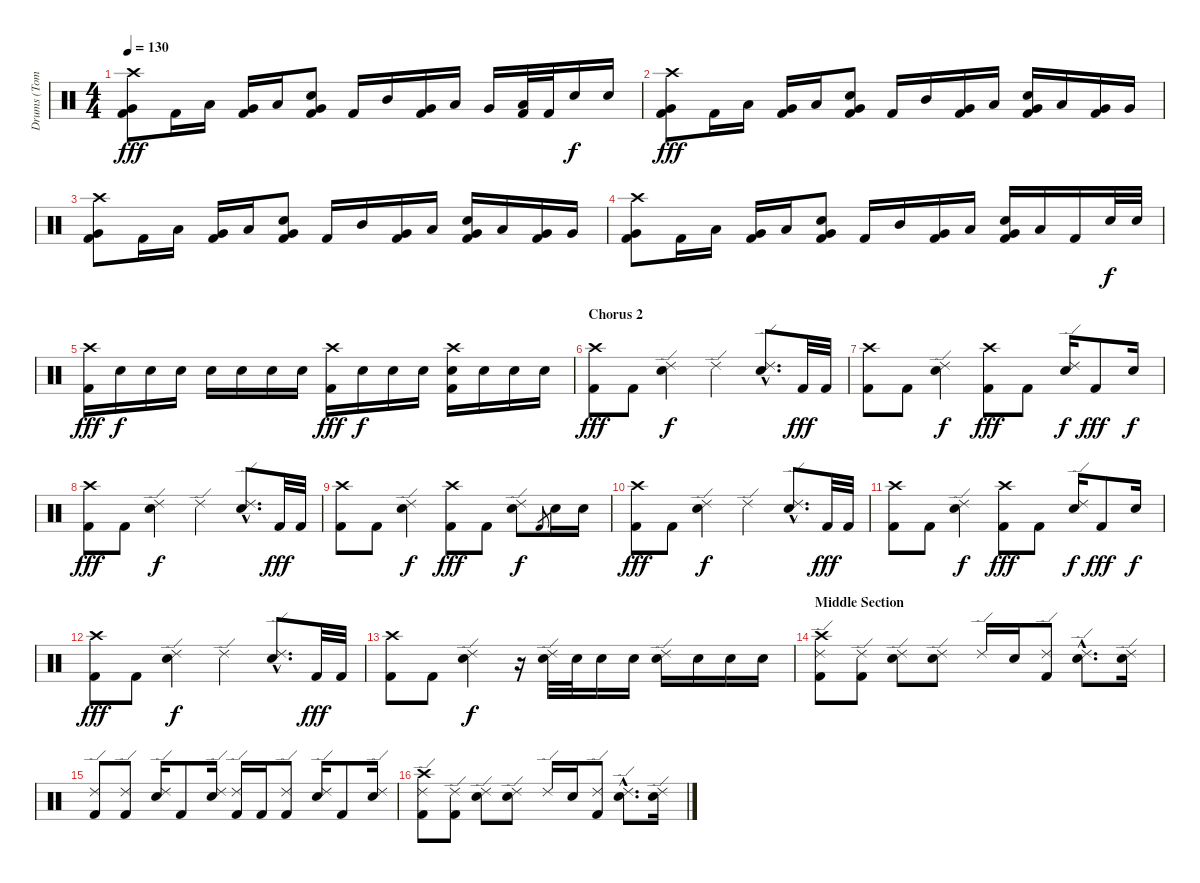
\track ("Drums (Tommy Decker)" "Drums (Tom") {instrument percussion}
\staff {score}
\articulation defaults
\ts (4 4)
\tempo 130
\clef neutral
\ks c
("Crash high (hit)" "Very Low Tom (hit)" "Kick (hit) 2").8{dy fff} "Kick (hit) 2".16 "Low Tom (hit)".16 ("Very Low Tom (hit)" "Kick (hit) 2").16 "Low Tom (hit)".16 ("Electric Snare (hit)" "Very Low Tom (hit)" "Kick (hit) 2").8 "Kick (hit) 2".16 "Mid Tom (hit)".16 ("Very Low Tom (hit)" "Kick (hit) 2").16 "Low Tom (hit)".16 "Very Low Tom (hit)".16 ("Low Tom (hit)" "Kick (hit) 2").32 "Kick (hit) 2".32 "Electric Snare (hit)".16{dy f} "Electric Snare (hit)".16 |
("Crash high (hit)" "Very Low Tom (hit)" "Kick (hit) 2").8{dy fff} "Kick (hit) 2".16 "Low Tom (hit)".16 ("Very Low Tom (hit)" "Kick (hit) 2").16 "Low Tom (hit)".16 ("Electric Snare (hit)" "Very Low Tom (hit)" "Kick (hit) 2").8 "Kick (hit) 2".16 "Mid Tom (hit)".16 ("Very Low Tom (hit)" "Kick (hit) 2").16 "Low Tom (hit)".16 ("Electric Snare (hit)" "Very Low Tom (hit)" "Kick (hit) 2").16 "Low Tom (hit)".16 ("Very Low Tom (hit)" "Kick (hit) 2").16 "Very Low Tom (hit)".16 |
("Crash high (hit)" "Very Low Tom (hit)" "Kick (hit) 2").8 "Kick (hit) 2".16 "Low Tom (hit)".16 ("Very Low Tom (hit)" "Kick (hit) 2").16 "Low Tom (hit)".16 ("Electric Snare (hit)" "Very Low Tom (hit)" "Kick (hit) 2").8 "Kick (hit) 2".16 "Mid Tom (hit)".16 ("Very Low Tom (hit)" "Kick (hit) 2").16 "Low Tom (hit)".16 ("Electric Snare (hit)" "Very Low Tom (hit)" "Kick (hit) 2").16 "Low Tom (hit)".16 ("Very Low Tom (hit)" "Kick (hit) 2").16 "Very Low Tom (hit)".16 |
("Crash high (hit)" "Very Low Tom (hit)" "Kick (hit) 2").8 "Kick (hit) 2".16 "Low Tom (hit)".16 ("Very Low Tom (hit)" "Kick (hit) 2").16 "Low Tom (hit)".16 ("Electric Snare (hit)" "Very Low Tom (hit)" "Kick (hit) 2").8 "Kick (hit) 2".16 "Mid Tom (hit)".16 ("Very Low Tom (hit)" "Kick (hit) 2").16 "Low Tom (hit)".16 ("Electric Snare (hit)" "Very Low Tom (hit)" "Kick (hit) 2").16 "Low Tom (hit)".16 "Kick (hit) 2".16 "Electric Snare (hit)".32{dy f} "Electric Snare (hit)".32 |
("Crash high (hit)" "Kick (hit) 2").16{dy fff} "Electric Snare (hit)".16{dy f} "Electric Snare (hit)".16 "Electric Snare (hit)".16 "Electric Snare (hit)".16 "Electric Snare (hit)".16 "Electric Snare (hit)".16 "Electric Snare (hit)".16 ("Crash high (hit)" "Kick (hit) 2").16{dy fff} "Electric Snare (hit)".16{dy f} "Electric Snare (hit)".16 "Electric Snare (hit)".16 ("Crash high (hit)" "Electric Snare (hit)" "Kick (hit) 2").16 "Electric Snare (hit)".16 "Electric Snare (hit)".16 "Electric Snare (hit)".16 |
\section ("" "Chorus 2")
("Crash high (hit)" "Kick (hit) 2").8{dy fff} "Kick (hit) 2".8 ("Ride (edge) 2" "Electric Snare (hit)").4{dy f} "Ride (edge) 2".4 ("Ride (edge) 2"{hac} "Electric Snare (hit)"{hac}).8{d} "Kick (hit) 2".32{dy fff} "Kick (hit) 2".32 |
("Crash high (hit)" "Kick (hit) 2").8 "Kick (hit) 2".8 ("Ride (edge) 2" "Electric Snare (hit)").4{dy f} ("Crash high (hit)" "Kick (hit) 2").8{dy fff} "Kick (hit) 2".8 ("Ride (edge) 2" "Electric Snare (hit)").16{dy f} "Kick (hit) 2".8{dy fff} "Electric Snare (hit)".16{dy f} |
("Crash high (hit)" "Kick (hit) 2").8{dy fff} "Kick (hit) 2".8 ("Ride (edge) 2" "Electric Snare (hit)").4{dy f} "Ride (edge) 2".4 ("Ride (edge) 2"{hac} "Electric Snare (hit)"{hac}).8{d} "Kick (hit) 2".32{dy fff} "Kick (hit) 2".32 |
("Crash high (hit)" "Kick (hit) 2").8 "Kick (hit) 2".8 ("Ride (edge) 2" "Electric Snare (hit)").4{dy f} ("Crash high (hit)" "Kick (hit) 2").8{dy fff} "Kick (hit) 2".8 ("Ride (edge) 2" "Electric Snare (hit)").8{dy f} "Kick (hit) 2".8{gr} "Electric Snare (hit)".16 "Electric Snare (hit)".16 |
("Crash high (hit)" "Kick (hit) 2").8{dy fff} "Kick (hit) 2".8 ("Ride (edge) 2" "Electric Snare (hit)").4{dy f} "Ride (edge) 2".4 ("Ride (edge) 2"{hac} "Electric Snare (hit)"{hac}).8{d} "Kick (hit) 2".32{dy fff} "Kick (hit) 2".32 |
("Crash high (hit)" "Kick (hit) 2").8 "Kick (hit) 2".8 ("Ride (edge) 2" "Electric Snare (hit)").4{dy f} ("Crash high (hit)" "Kick (hit) 2").8{dy fff} "Kick (hit) 2".8 ("Ride (edge) 2" "Electric Snare (hit)").16{dy f} "Kick (hit) 2".8{dy fff} "Electric Snare (hit)".16{dy f} |
("Crash high (hit)" "Kick (hit) 2").8{dy fff} "Kick (hit) 2".8 ("Ride (edge) 2" "Electric Snare (hit)").4{dy f} "Ride (edge) 2".4 ("Ride (edge) 2"{hac} "Electric Snare (hit)"{hac}).8{d} "Kick (hit) 2".32{dy fff} "Kick (hit) 2".32 |
("Crash high (hit)" "Kick (hit) 2").8 "Kick (hit) 2".8 ("Ride (edge) 2" "Electric Snare (hit)").4{dy f} r.16 ("Ride (edge) 2" "Electric Snare (hit)").32 "Electric Snare (hit)".32 "Electric Snare (hit)".16 "Electric Snare (hit)".16 ("Ride (edge) 2" "Electric Snare (hit)").16 "Electric Snare (hit)".16 "Electric Snare (hit)".16 "Electric Snare (hit)".16 |
\section ("" "Middle Section")
("Ride (edge) 2" "Crash high (hit)" "Kick (hit) 2").8 ("Ride (edge) 2" "Kick (hit) 2").8 ("Ride (edge) 2" "Electric Snare (hit)").8 ("Ride (edge) 2" "Electric Snare (hit)").8 "Ride (edge) 2".16 "Electric Snare (hit)".16 ("Ride (edge) 2" "Kick (hit) 2").8 ("Ride (edge) 2"{hac} "Electric Snare (hit)"{hac}).8{d} ("Ride (edge) 2" "Electric Snare (hit)").16 |
("Ride (edge) 2" "Kick (hit) 2").8 ("Ride (edge) 2" "Kick (hit) 2").8 ("Ride (edge) 2" "Electric Snare (hit)").16 "Kick (hit) 2".8 ("Ride (edge) 2" "Electric Snare (hit)").16 ("Ride (edge) 2" "Kick (hit) 2").16 "Kick (hit) 2".16 ("Ride (edge) 2" "Kick (hit) 2").8 ("Ride (edge) 2" "Electric Snare (hit)").16 "Kick (hit) 2".8 ("Ride (edge) 2" "Electric Snare (hit)").16 |
("Ride (edge) 2" "Crash high (hit)" "Kick (hit) 2").8 ("Ride (edge) 2" "Kick (hit) 2").8 ("Ride (edge) 2" "Electric Snare (hit)").8 ("Ride (edge) 2" "Electric Snare (hit)").8 "Ride (edge) 2".16 "Electric Snare (hit)".16 ("Ride (edge) 2" "Kick (hit) 2").8 ("Ride (edge) 2"{hac} "Electric Snare (hit)"{hac}).8{d} ("Ride (edge) 2" "Electric Snare (hit)").16
